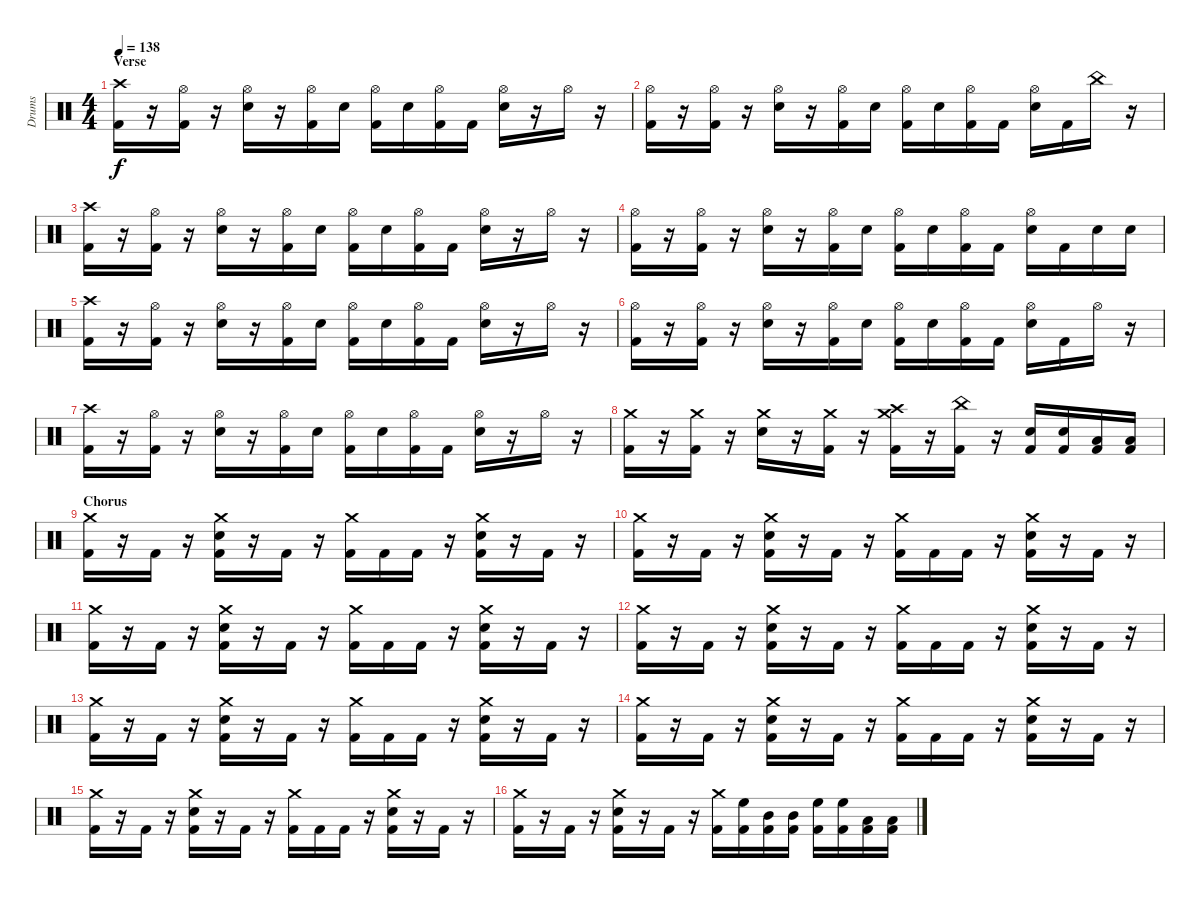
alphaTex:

\track ("Drums" "Drums") {instrument percussion}
\staff {score}
\articulation defaults
\ts (4 4)
\section ("" "Verse")
\tempo 138
\clef neutral
\ks c
("Crash high (hit)" "Kick (hit) 2").16{dy f} r.16 ("Hi-Hat (open)" "Kick (hit) 2").16 r.16 ("Hi-Hat (open)" "Snare (hit) 2").16 r.16 ("Hi-Hat (open)" "Kick (hit) 2").16 "Snare (hit) 2".16 ("Hi-Hat (open)" "Kick (hit) 2").16 "Snare (hit) 2".16 ("Hi-Hat (open)" "Kick (hit) 2").16 "Kick (hit) 2".16 ("Hi-Hat (open)" "Snare (hit) 2").16 r.16 "Hi-Hat (open)".16 r.16 |
("Hi-Hat (open)" "Kick (hit) 2").16 r.16 ("Hi-Hat (open)" "Kick (hit) 2").16 r.16 ("Hi-Hat (open)" "Snare (hit) 2").16 r.16 ("Hi-Hat (open)" "Kick (hit) 2").16 "Snare (hit) 2".16 ("Hi-Hat (open)" "Kick (hit) 2").16 "Snare (hit) 2".16 ("Hi-Hat (open)" "Kick (hit) 2").16 "Kick (hit) 2".16 ("Hi-Hat (open)" "Snare (hit) 2").16 "Kick (hit) 2".16 "China (hit)".16 r.16 |
("Crash high (hit)" "Kick (hit) 2").16 r.16 ("Hi-Hat (open)" "Kick (hit) 2").16 r.16 ("Hi-Hat (open)" "Snare (hit) 2").16 r.16 ("Hi-Hat (open)" "Kick (hit) 2").16 "Snare (hit) 2".16 ("Hi-Hat (open)" "Kick (hit) 2").16 "Snare (hit) 2".16 ("Hi-Hat (open)" "Kick (hit) 2").16 "Kick (hit) 2".16 ("Hi-Hat (open)" "Snare (hit) 2").16 r.16 "Hi-Hat (open)".16 r.16 |
("Hi-Hat (open)" "Kick (hit) 2").16 r.16 ("Hi-Hat (open)" "Kick (hit) 2").16 r.16 ("Hi-Hat (open)" "Snare (hit) 2").16 r.16 ("Hi-Hat (open)" "Kick (hit) 2").16 "Snare (hit) 2".16 ("Hi-Hat (open)" "Kick (hit) 2").16 "Snare (hit) 2".16 ("Hi-Hat (open)" "Kick (hit) 2").16 "Kick (hit) 2".16 ("Hi-Hat (open)" "Snare (hit) 2").16 "Kick (hit) 2".16 "Snare (hit) 2".16 "Snare (hit) 2".16 |
("Crash high (hit)" "Kick (hit) 2").16 r.16 ("Hi-Hat (open)" "Kick (hit) 2").16 r.16 ("Hi-Hat (open)" "Snare (hit) 2").16 r.16 ("Hi-Hat (open)" "Kick (hit) 2").16 "Snare (hit) 2".16 ("Hi-Hat (open)" "Kick (hit) 2").16 "Snare (hit) 2".16 ("Hi-Hat (open)" "Kick (hit) 2").16 "Kick (hit) 2".16 ("Hi-Hat (open)" "Snare (hit) 2").16 r.16 "Hi-Hat (open)".16 r.16 |
("Hi-Hat (open)" "Kick (hit) 2").16 r.16 ("Hi-Hat (open)" "Kick (hit) 2").16 r.16 ("Hi-Hat (open)" "Snare (hit) 2").16 r.16 ("Hi-Hat (open)" "Kick (hit) 2").16 "Snare (hit) 2".16 ("Hi-Hat (open)" "Kick (hit) 2").16 "Snare (hit) 2".16 ("Hi-Hat (open)" "Kick (hit) 2").16 "Kick (hit) 2".16 ("Hi-Hat (open)" "Snare (hit) 2").16 "Kick (hit) 2".16 "Hi-Hat (open)".16 r.16 |
("Crash high (hit)" "Kick (hit) 2").16 r.16 ("Hi-Hat (open)" "Kick (hit) 2").16 r.16 ("Hi-Hat (open)" "Snare (hit) 2").16 r.16 ("Hi-Hat (open)" "Kick (hit) 2").16 "Snare (hit) 2".16 ("Hi-Hat (open)" "Kick (hit) 2").16 "Snare (hit) 2".16 ("Hi-Hat (open)" "Kick (hit) 2").16 "Kick (hit) 2".16 ("Hi-Hat (open)" "Snare (hit) 2").16 r.16 "Hi-Hat (open)".16 r.16 |
("Crash medium (hit)" "Kick (hit) 2").16 r.16 ("Crash medium (hit)" "Kick (hit) 2").16 r.16 ("Crash medium (hit)" "Snare (hit) 2").16 r.16 ("Crash medium (hit)" "Kick (hit) 2").16 r.16 ("Crash medium (hit)" "Crash high (hit)" "Kick (hit) 2").16 r.16 ("China (hit)" "Kick (hit) 2").16 r.16 ("Snare (hit) 2" "Kick (hit) 2").16 ("Snare (hit) 2" "Kick (hit) 2").16 ("Low Floor Tom (hit)" "Kick (hit) 2").16 ("Low Floor Tom (hit)" "Kick (hit) 2").16 |
\section ("" "Chorus")
("Crash medium (hit)" "Kick (hit) 2").16 r.16 "Kick (hit) 2".16 r.16 ("Crash medium (hit)" "Snare (hit) 2" "Kick (hit) 2").16 r.16 "Kick (hit) 2".16 r.16 ("Crash medium (hit)" "Kick (hit) 2").16 "Kick (hit) 2".16 "Kick (hit) 2".16 r.16 ("Crash medium (hit)" "Snare (hit) 2" "Kick (hit) 2").16 r.16 "Kick (hit) 2".16 r.16 |
("Crash medium (hit)" "Kick (hit) 2").16 r.16 "Kick (hit) 2".16 r.16 ("Crash medium (hit)" "Snare (hit) 2" "Kick (hit) 2").16 r.16 "Kick (hit) 2".16 r.16 ("Crash medium (hit)" "Kick (hit) 2").16 "Kick (hit) 2".16 "Kick (hit) 2".16 r.16 ("Crash medium (hit)" "Snare (hit) 2" "Kick (hit) 2").16 r.16 "Kick (hit) 2".16 r.16 |
("Crash medium (hit)" "Kick (hit) 2").16 r.16 "Kick (hit) 2".16 r.16 ("Crash medium (hit)" "Snare (hit) 2" "Kick (hit) 2").16 r.16 "Kick (hit) 2".16 r.16 ("Crash medium (hit)" "Kick (hit) 2").16 "Kick (hit) 2".16 "Kick (hit) 2".16 r.16 ("Crash medium (hit)" "Snare (hit) 2" "Kick (hit) 2").16 r.16 "Kick (hit) 2".16 r.16 |
("Crash medium (hit)" "Kick (hit) 2").16 r.16 "Kick (hit) 2".16 r.16 ("Crash medium (hit)" "Snare (hit) 2" "Kick (hit) 2").16 r.16 "Kick (hit) 2".16 r.16 ("Crash medium (hit)" "Kick (hit) 2").16 "Kick (hit) 2".16 "Kick (hit) 2".16 r.16 ("Crash medium (hit)" "Snare (hit) 2" "Kick (hit) 2").16 r.16 "Kick (hit) 2".16 r.16 |
("Crash medium (hit)" "Kick (hit) 2").16 r.16 "Kick (hit) 2".16 r.16 ("Crash medium (hit)" "Snare (hit) 2" "Kick (hit) 2").16 r.16 "Kick (hit) 2".16 r.16 ("Crash medium (hit)" "Kick (hit) 2").16 "Kick (hit) 2".16 "Kick (hit) 2".16 r.16 ("Crash medium (hit)" "Snare (hit) 2" "Kick (hit) 2").16 r.16 "Kick (hit) 2".16 r.16 |
("Crash medium (hit)" "Kick (hit) 2").16 r.16 "Kick (hit) 2".16 r.16 ("Crash medium (hit)" "Snare (hit) 2" "Kick (hit) 2").16 r.16 "Kick (hit) 2".16 r.16 ("Crash medium (hit)" "Kick (hit) 2").16 "Kick (hit) 2".16 "Kick (hit) 2".16 r.16 ("Crash medium (hit)" "Snare (hit) 2" "Kick (hit) 2").16 r.16 "Kick (hit) 2".16 r.16 |
("Crash medium (hit)" "Kick (hit) 2").16 r.16 "Kick (hit) 2".16 r.16 ("Crash medium (hit)" "Snare (hit) 2" "Kick (hit) 2").16 r.16 "Kick (hit) 2".16 r.16 ("Crash medium (hit)" "Kick (hit) 2").16 "Kick (hit) 2".16 "Kick (hit) 2".16 r.16 ("Crash medium (hit)" "Snare (hit) 2" "Kick (hit) 2").16 r.16 "Kick (hit) 2".16 r.16 |
("Crash medium (hit)" "Kick (hit) 2").16 r.16 "Kick (hit) 2".16 r.16 ("Crash medium (hit)" "Snare (hit) 2" "Kick (hit) 2").16 r.16 "Kick (hit) 2".16 r.16 ("Crash medium (hit)" "Kick (hit) 2").16 ("High Floor Tom (hit)" "Kick (hit) 2").16 ("Mid Tom (hit)" "Kick (hit) 2").16 ("Mid Tom (hit)" "Kick (hit) 2").16 ("High Floor Tom (hit)" "Kick (hit) 2").16 ("High Floor Tom (hit)" "Kick (hit) 2").16 ("Low Tom (hit)" "Kick (hit) 2").16 ("Low Tom (hit)" "Kick (hit) 2").16
